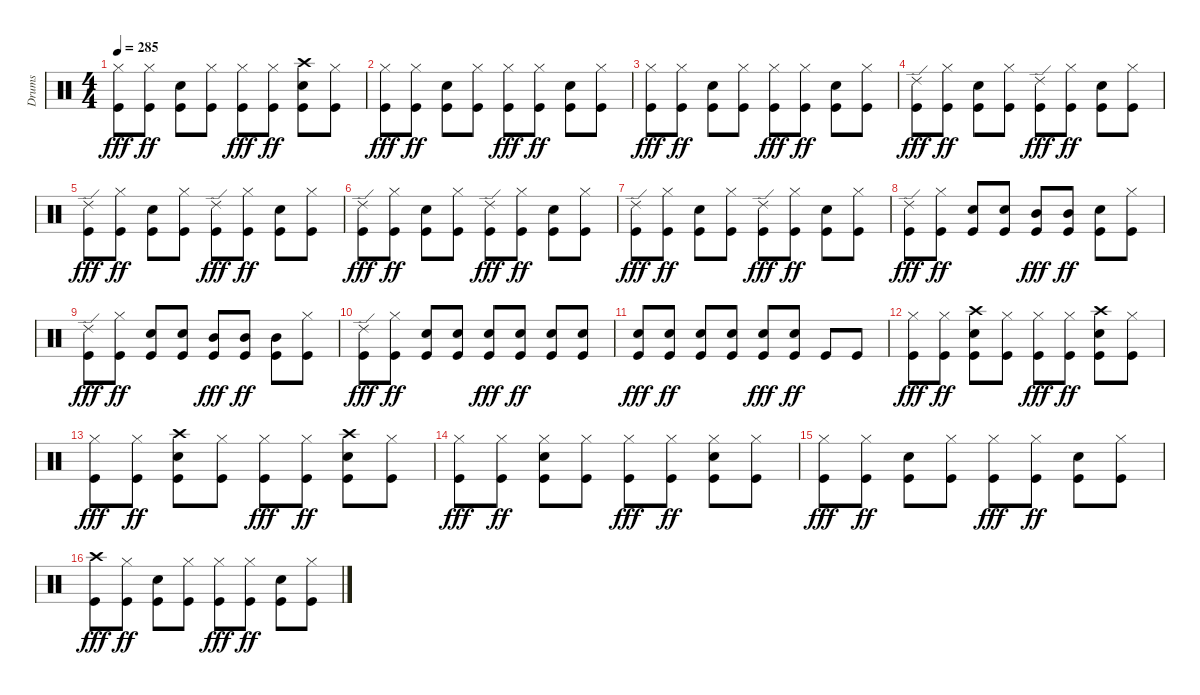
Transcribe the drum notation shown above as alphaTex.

\track ("Drums" "Drums") {instrument percussion}
\staff {score}
\articulation defaults
\ts (4 4)
\tempo 285
\clef neutral
\ks c
("Hi-Hat (closed)" "Kick (hit)").8{dy fff} ("Hi-Hat (closed)" "Kick (hit)").8{dy ff} ("Snare (hit) 2" "Kick (hit)").8 ("Hi-Hat (closed)" "Kick (hit)").8 ("Hi-Hat (closed)" "Kick (hit)").8{dy fff} ("Hi-Hat (closed)" "Kick (hit)").8{dy ff} ("Crash high (hit)" "Snare (hit) 2" "Kick (hit)").8 ("Hi-Hat (closed)" "Kick (hit)").8 |
("Hi-Hat (closed)" "Kick (hit)").8{dy fff} ("Hi-Hat (closed)" "Kick (hit)").8{dy ff} ("Snare (hit) 2" "Kick (hit)").8 ("Hi-Hat (closed)" "Kick (hit)").8 ("Hi-Hat (closed)" "Kick (hit)").8{dy fff} ("Hi-Hat (closed)" "Kick (hit)").8{dy ff} ("Snare (hit) 2" "Kick (hit)").8 ("Hi-Hat (closed)" "Kick (hit)").8 |
("Hi-Hat (closed)" "Kick (hit)").8{dy fff} ("Hi-Hat (closed)" "Kick (hit)").8{dy ff} ("Snare (hit) 2" "Kick (hit)").8 ("Hi-Hat (closed)" "Kick (hit)").8 ("Hi-Hat (closed)" "Kick (hit)").8{dy fff} ("Hi-Hat (closed)" "Kick (hit)").8{dy ff} ("Snare (hit) 2" "Kick (hit)").8 ("Hi-Hat (closed)" "Kick (hit)").8 |
("Ride (edge) 2" "Kick (hit)").8{dy fff} ("Hi-Hat (closed)" "Kick (hit)").8{dy ff} ("Snare (hit) 2" "Kick (hit)").8 ("Hi-Hat (closed)" "Kick (hit)").8 ("Ride (edge) 2" "Kick (hit)").8{dy fff} ("Hi-Hat (closed)" "Kick (hit)").8{dy ff} ("Snare (hit) 2" "Kick (hit)").8 ("Hi-Hat (closed)" "Kick (hit)").8 |
("Ride (edge) 2" "Kick (hit)").8{dy fff} ("Hi-Hat (closed)" "Kick (hit)").8{dy ff} ("Snare (hit) 2" "Kick (hit)").8 ("Hi-Hat (closed)" "Kick (hit)").8 ("Ride (edge) 2" "Kick (hit)").8{dy fff} ("Hi-Hat (closed)" "Kick (hit)").8{dy ff} ("Snare (hit) 2" "Kick (hit)").8 ("Hi-Hat (closed)" "Kick (hit)").8 |
("Ride (edge) 2" "Kick (hit)").8{dy fff} ("Hi-Hat (closed)" "Kick (hit)").8{dy ff} ("Snare (hit) 2" "Kick (hit)").8 ("Hi-Hat (closed)" "Kick (hit)").8 ("Ride (edge) 2" "Kick (hit)").8{dy fff} ("Hi-Hat (closed)" "Kick (hit)").8{dy ff} ("Snare (hit) 2" "Kick (hit)").8 ("Hi-Hat (closed)" "Kick (hit)").8 |
("Ride (edge) 2" "Kick (hit)").8{dy fff} ("Hi-Hat (closed)" "Kick (hit)").8{dy ff} ("Snare (hit) 2" "Kick (hit)").8 ("Hi-Hat (closed)" "Kick (hit)").8 ("Ride (edge) 2" "Kick (hit)").8{dy fff} ("Hi-Hat (closed)" "Kick (hit)").8{dy ff} ("Snare (hit) 2" "Kick (hit)").8 ("Hi-Hat (closed)" "Kick (hit)").8 |
("Ride (edge) 2" "Kick (hit)").8{dy fff} ("Hi-Hat (closed)" "Kick (hit)").8{dy ff} ("Snare (hit) 2" "Kick (hit)").8 ("Snare (hit) 2" "Kick (hit)").8 ("Mid Tom (hit)" "Kick (hit)").8{dy fff} ("Mid Tom (hit)" "Kick (hit)").8{dy ff} ("Snare (hit) 2" "Kick (hit)").8 ("Hi-Hat (closed)" "Kick (hit)").8 |
("Ride (edge) 2" "Kick (hit)").8{dy fff} ("Hi-Hat (closed)" "Kick (hit)").8{dy ff} ("Snare (hit) 2" "Kick (hit)").8 ("Snare (hit) 2" "Kick (hit)").8 ("Mid Tom (hit)" "Kick (hit)").8{dy fff} ("Mid Tom (hit)" "Kick (hit)").8{dy ff} ("Mid Tom (hit)" "Kick (hit)").8 ("Hi-Hat (closed)" "Kick (hit)").8 |
("Ride (edge) 2" "Kick (hit)").8{dy fff} ("Hi-Hat (closed)" "Kick (hit)").8{dy ff} ("Snare (hit) 2" "Kick (hit)").8{volume 8} ("Snare (hit) 2" "Kick (hit)").8{volume 14} ("Snare (hit) 2" "Kick (hit)").8{dy fff} ("Snare (hit) 2" "Kick (hit)").8{dy ff} ("Snare (hit) 2" "Kick (hit)").8 ("Snare (hit) 2" "Kick (hit)").8 |
("Snare (hit) 2" "Kick (hit)").8{dy fff} ("Snare (hit) 2" "Kick (hit)").8{dy ff} ("Snare (hit) 2" "Kick (hit)").8 ("Snare (hit) 2" "Kick (hit)").8 ("Snare (hit) 2" "Kick (hit)").8{dy fff} ("Snare (hit) 2" "Kick (hit)").8{dy ff} "Kick (hit)".8 "Kick (hit)".8 |
("Hi-Hat (closed)" "Kick (hit)").8{dy fff} ("Hi-Hat (closed)" "Kick (hit)").8{dy ff} ("Crash high (hit)" "Snare (hit) 2" "Kick (hit)").8 ("Hi-Hat (closed)" "Kick (hit)").8 ("Hi-Hat (closed)" "Kick (hit)").8{dy fff} ("Hi-Hat (closed)" "Kick (hit)").8{dy ff} ("Crash high (hit)" "Snare (hit) 2" "Kick (hit)").8 ("Hi-Hat (closed)" "Kick (hit)").8 |
("Hi-Hat (closed)" "Kick (hit)").8{dy fff} ("Hi-Hat (closed)" "Kick (hit)").8{dy ff} ("Crash high (hit)" "Snare (hit) 2" "Kick (hit)").8 ("Hi-Hat (closed)" "Kick (hit)").8 ("Hi-Hat (closed)" "Kick (hit)").8{dy fff} ("Hi-Hat (closed)" "Kick (hit)").8{dy ff} ("Crash high (hit)" "Snare (hit) 2" "Kick (hit)").8 ("Hi-Hat (closed)" "Kick (hit)").8 |
("Hi-Hat (closed)" "Kick (hit)").8{dy fff} ("Hi-Hat (closed)" "Kick (hit)").8{dy ff} ("Hi-Hat (closed)" "Snare (hit) 2" "Kick (hit)").8 ("Hi-Hat (closed)" "Kick (hit)").8 ("Hi-Hat (closed)" "Kick (hit)").8{dy fff} ("Hi-Hat (closed)" "Kick (hit)").8{dy ff} ("Hi-Hat (closed)" "Snare (hit) 2" "Kick (hit)").8 ("Hi-Hat (closed)" "Kick (hit)").8 |
("Hi-Hat (closed)" "Kick (hit)").8{dy fff} ("Hi-Hat (closed)" "Kick (hit)").8{dy ff} ("Snare (hit) 2" "Kick (hit)").8 ("Hi-Hat (closed)" "Kick (hit)").8 ("Hi-Hat (closed)" "Kick (hit)").8{dy fff} ("Hi-Hat (closed)" "Kick (hit)").8{dy ff} ("Snare (hit) 2" "Kick (hit)").8 ("Hi-Hat (closed)" "Kick (hit)").8 |
("Crash high (hit)" "Kick (hit)").8{dy fff} ("Hi-Hat (closed)" "Kick (hit)").8{dy ff} ("Snare (hit) 2" "Kick (hit)").8 ("Hi-Hat (closed)" "Kick (hit)").8 ("Hi-Hat (closed)" "Kick (hit)").8{dy fff} ("Hi-Hat (closed)" "Kick (hit)").8{dy ff} ("Snare (hit) 2" "Kick (hit)").8 ("Hi-Hat (closed)" "Kick (hit)").8
